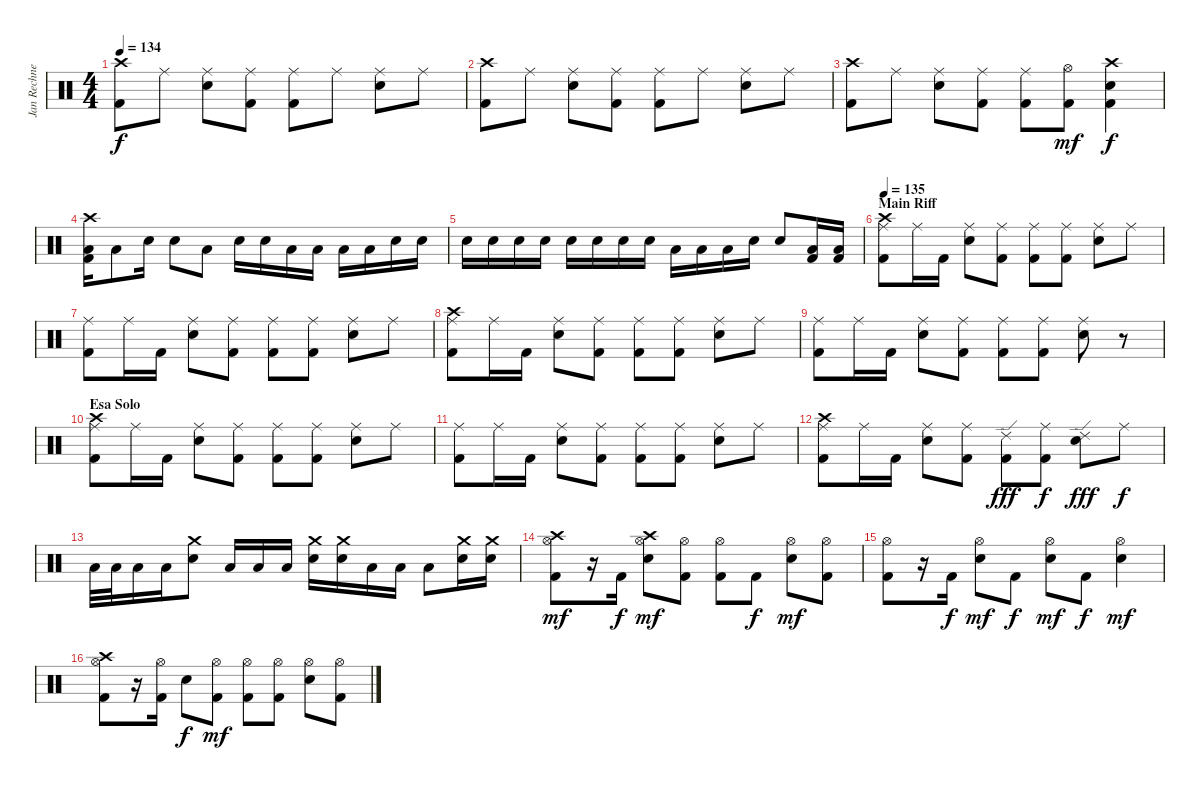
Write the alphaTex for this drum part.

\track ("Jan Rechnerger" "Jan Rechne") {instrument percussion}
\staff {score}
\articulation defaults
\ts (4 4)
\tempo 134
\clef neutral
\ks c
("Crash high (hit)" "Kick (hit) 2").8{dy f} "Ride (middle)".8 ("Ride (middle)" "Snare (hit) 2").8 ("Ride (middle)" "Kick (hit) 2").8 ("Ride (middle)" "Kick (hit) 2").8 "Ride (middle)".8 ("Ride (middle)" "Snare (hit) 2").8 "Ride (middle)".8 |
("Crash high (hit)" "Kick (hit) 2").8 "Ride (middle)".8 ("Ride (middle)" "Snare (hit) 2").8 ("Ride (middle)" "Kick (hit) 2").8 ("Ride (middle)" "Kick (hit) 2").8 "Ride (middle)".8 ("Ride (middle)" "Snare (hit) 2").8 "Ride (middle)".8 |
("Crash high (hit)" "Kick (hit) 2").8 "Ride (middle)".8 ("Ride (middle)" "Snare (hit) 2").8 ("Ride (middle)" "Kick (hit) 2").8 ("Ride (middle)" "Kick (hit) 2").8 ("Hi-Hat (open)" "Kick (hit) 2").8{dy mf} ("Crash high (hit)" "Snare (hit) 2" "Kick (hit) 2").4{dy f} |
("Crash high (hit)" "Low Tom (hit)" "Kick (hit) 2").16 "Low Tom (hit)".8 "Snare (hit) 2".16 "Snare (hit) 2".8 "Low Tom (hit)".8 "Snare (hit) 2".16 "Snare (hit) 2".16 "Low Tom (hit)".16 "Low Tom (hit)".16 "Low Tom (hit)".16 "Low Tom (hit)".16 "Snare (hit) 2".16 "Snare (hit) 2".16 |
"Snare (hit) 2".16 "Snare (hit) 2".16 "Snare (hit) 2".16 "Snare (hit) 2".16 "Snare (hit) 2".16 "Snare (hit) 2".16 "Snare (hit) 2".16 "Snare (hit) 2".16 "Low Tom (hit)".16 "Low Tom (hit)".16 "Low Tom (hit)".16 "Snare (hit) 2".16 "Snare (hit) 2".8 ("Low Tom (hit)" "Kick (hit) 2").16 ("Low Tom (hit)" "Kick (hit) 2").16 |
\section ("" "Main Riff")
\tempo 135
("Crash high (hit)" "Ride (middle)" "Kick (hit) 2").8 "Ride (middle)".16 "Kick (hit) 2".16 ("Ride (middle)" "Snare (hit) 2").8 ("Ride (middle)" "Kick (hit) 2").8 ("Ride (middle)" "Kick (hit) 2").8 ("Ride (middle)" "Kick (hit) 2").8 ("Ride (middle)" "Snare (hit) 2").8 "Ride (middle)".8 |
("Ride (middle)" "Kick (hit) 2").8 "Ride (middle)".16 "Kick (hit) 2".16 ("Ride (middle)" "Snare (hit) 2").8 ("Ride (middle)" "Kick (hit) 2").8 ("Ride (middle)" "Kick (hit) 2").8 ("Ride (middle)" "Kick (hit) 2").8 ("Ride (middle)" "Snare (hit) 2").8 "Ride (middle)".8 |
("Crash high (hit)" "Ride (middle)" "Kick (hit) 2").8 "Ride (middle)".16 "Kick (hit) 2".16 ("Ride (middle)" "Snare (hit) 2").8 ("Ride (middle)" "Kick (hit) 2").8 ("Ride (middle)" "Kick (hit) 2").8 ("Ride (middle)" "Kick (hit) 2").8 ("Ride (middle)" "Snare (hit) 2").8 "Ride (middle)".8 |
("Ride (middle)" "Kick (hit) 2").8 "Ride (middle)".16 "Kick (hit) 2".16 ("Ride (middle)" "Snare (hit) 2").8 ("Ride (middle)" "Kick (hit) 2").8 ("Ride (middle)" "Kick (hit) 2").8 ("Ride (middle)" "Kick (hit) 2").8 ("Ride (middle)" "Snare (hit) 2").8 r.8 |
\section ("" "Esa Solo")
("Crash high (hit)" "Ride (middle)" "Kick (hit) 2").8 "Ride (middle)".16 "Kick (hit) 2".16 ("Ride (middle)" "Snare (hit) 2").8 ("Ride (middle)" "Kick (hit) 2").8 ("Ride (middle)" "Kick (hit) 2").8 ("Ride (middle)" "Kick (hit) 2").8 ("Ride (middle)" "Snare (hit) 2").8 "Ride (middle)".8 |
("Ride (middle)" "Kick (hit) 2").8 "Ride (middle)".16 "Kick (hit) 2".16 ("Ride (middle)" "Snare (hit) 2").8 ("Ride (middle)" "Kick (hit) 2").8 ("Ride (middle)" "Kick (hit) 2").8 ("Ride (middle)" "Kick (hit) 2").8 ("Ride (middle)" "Snare (hit) 2").8 "Ride (middle)".8 |
("Crash high (hit)" "Ride (middle)" "Kick (hit) 2").8 "Ride (middle)".16 "Kick (hit) 2".16 ("Ride (middle)" "Snare (hit) 2").8 ("Ride (middle)" "Kick (hit) 2").8 ("Ride (edge) 2" "Kick (hit) 2").8{dy fff} ("Ride (middle)" "Kick (hit) 2").8{dy f} ("Ride (edge) 2" "Snare (hit) 2").8{dy fff} "Ride (middle)".8{dy f} |
"Low Tom (hit)".32 "Low Tom (hit)".32 "Low Tom (hit)".16 "Low Tom (hit)".16 ("Crash medium (hit)" "Snare (hit) 2").8 "Low Tom (hit)".16 "Low Tom (hit)".16 "Low Tom (hit)".16 ("Crash medium (hit)" "Snare (hit) 2").16 ("Crash medium (hit)" "Snare (hit) 2").16 "Low Tom (hit)".16 "Low Tom (hit)".16 "Low Tom (hit)".8 ("Crash medium (hit)" "Snare (hit) 2").16 ("Crash medium (hit)" "Snare (hit) 2").16 |
("Crash high (hit)" "Hi-Hat (open)" "Kick (hit) 2").8{dy mf} r.16 "Kick (hit) 2".16{dy f} ("Crash high (hit)" "Hi-Hat (open)" "Snare (hit) 2").8{dy mf} ("Hi-Hat (open)" "Kick (hit) 2").8 ("Hi-Hat (open)" "Kick (hit) 2").8 "Kick (hit) 2".8{dy f} ("Hi-Hat (open)" "Snare (hit) 2").8{dy mf} ("Hi-Hat (open)" "Kick (hit) 2").8 |
("Hi-Hat (open)" "Kick (hit) 2").8 r.16 "Kick (hit) 2".16{dy f} ("Hi-Hat (open)" "Snare (hit) 2").8{dy mf} "Kick (hit) 2".8{dy f} ("Hi-Hat (open)" "Snare (hit) 2").8{dy mf} "Kick (hit) 2".8{dy f} ("Hi-Hat (open)" "Snare (hit) 2").4{dy mf} |
("Crash high (hit)" "Hi-Hat (open)" "Kick (hit) 2").8 r.16 ("Hi-Hat (open)" "Kick (hit) 2").16 "Snare (hit) 2".8{dy f} ("Hi-Hat (open)" "Kick (hit) 2").8{dy mf} ("Hi-Hat (open)" "Kick (hit) 2").8 ("Hi-Hat (open)" "Kick (hit) 2").8 ("Hi-Hat (open)" "Snare (hit) 2").8 ("Hi-Hat (open)" "Kick (hit) 2").8
